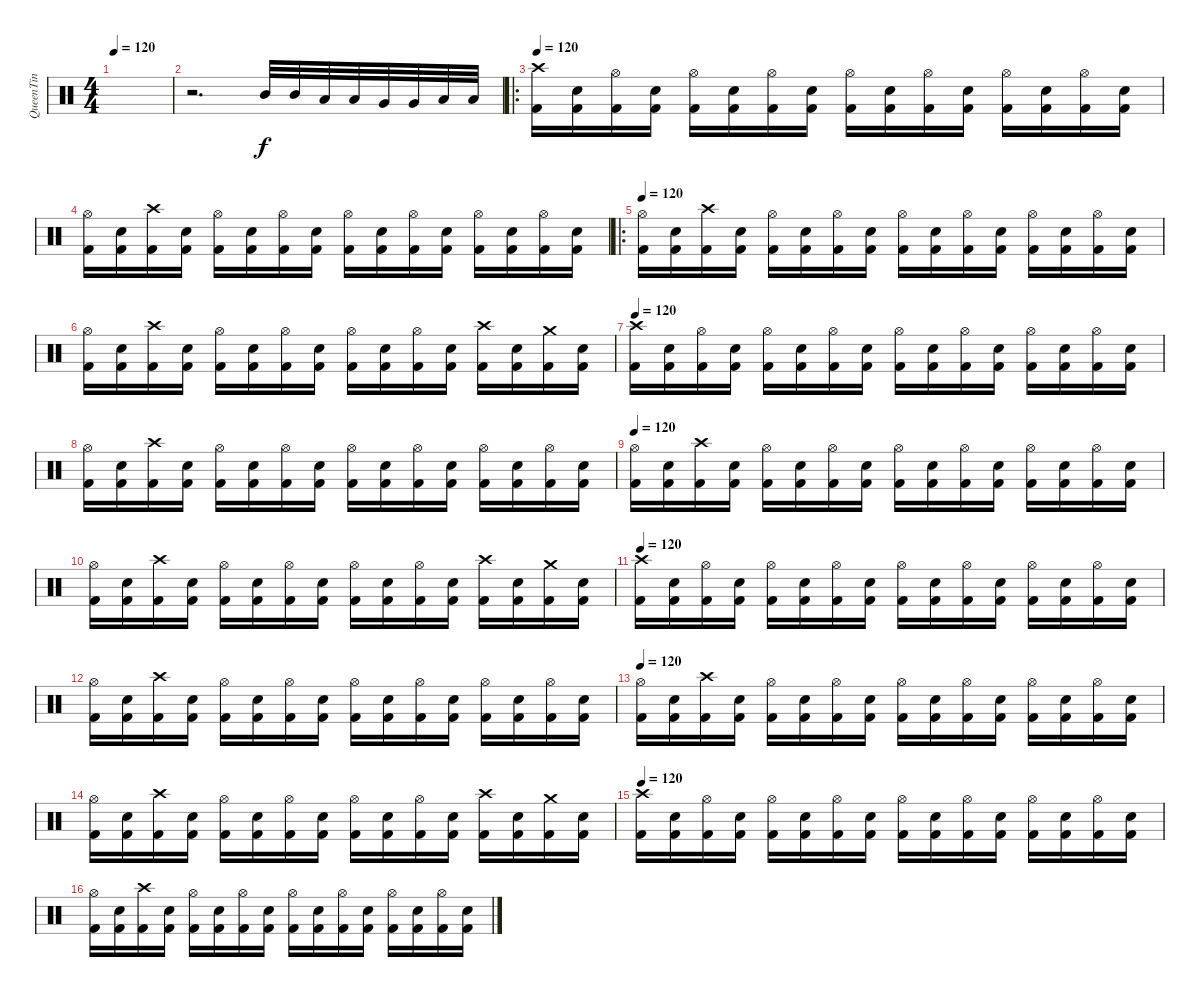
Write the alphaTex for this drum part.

\track ("QueenTin" "QueenTin") {instrument percussion}
\staff {score}
\articulation defaults
\ts (4 4)
\tempo 120
\clef neutral
\ks c
|
r.2{d} "Mid Tom (hit)".32 "Mid Tom (hit)".32 "Low Tom (hit)".32 "Low Tom (hit)".32 "Very Low Tom (hit)".32 "Very Low Tom (hit)".32 "Low Floor Tom (hit)".32 "Low Floor Tom (hit)".32 |
\ro
\section ("" "")
\tempo 120
("Crash high (hit)" "Kick (hit) 2").16 ("Snare (hit) 2" "Kick (hit) 2").16 ("Hi-Hat (open)" "Kick (hit) 2").16 ("Snare (hit) 2" "Kick (hit) 2").16 ("Hi-Hat (open)" "Kick (hit) 2").16 ("Snare (hit) 2" "Kick (hit) 2").16 ("Hi-Hat (open)" "Kick (hit) 2").16 ("Snare (hit) 2" "Kick (hit) 2").16 ("Hi-Hat (open)" "Kick (hit) 2").16 ("Snare (hit) 2" "Kick (hit) 2").16 ("Hi-Hat (open)" "Kick (hit) 2").16 ("Snare (hit) 2" "Kick (hit) 2").16 ("Hi-Hat (open)" "Kick (hit) 2").16 ("Snare (hit) 2" "Kick (hit) 2").16 ("Hi-Hat (open)" "Kick (hit) 2").16 ("Snare (hit) 2" "Kick (hit) 2").16 |
("Hi-Hat (open)" "Kick (hit) 2").16 ("Snare (hit) 2" "Kick (hit) 2").16 ("Crash high (hit)" "Kick (hit) 2").16 ("Snare (hit) 2" "Kick (hit) 2").16 ("Hi-Hat (open)" "Kick (hit) 2").16 ("Snare (hit) 2" "Kick (hit) 2").16 ("Hi-Hat (open)" "Kick (hit) 2").16 ("Snare (hit) 2" "Kick (hit) 2").16 ("Hi-Hat (open)" "Kick (hit) 2").16 ("Snare (hit) 2" "Kick (hit) 2").16 ("Hi-Hat (open)" "Kick (hit) 2").16 ("Snare (hit) 2" "Kick (hit) 2").16 ("Hi-Hat (open)" "Kick (hit) 2").16 ("Snare (hit) 2" "Kick (hit) 2").16 ("Hi-Hat (open)" "Kick (hit) 2").16 ("Snare (hit) 2" "Kick (hit) 2").16 |
\ro
\tempo 120
("Hi-Hat (open)" "Kick (hit) 2").16 ("Snare (hit) 2" "Kick (hit) 2").16 ("Crash high (hit)" "Kick (hit) 2").16 ("Snare (hit) 2" "Kick (hit) 2").16 ("Hi-Hat (open)" "Kick (hit) 2").16 ("Snare (hit) 2" "Kick (hit) 2").16 ("Hi-Hat (open)" "Kick (hit) 2").16 ("Snare (hit) 2" "Kick (hit) 2").16 ("Hi-Hat (open)" "Kick (hit) 2").16 ("Snare (hit) 2" "Kick (hit) 2").16 ("Hi-Hat (open)" "Kick (hit) 2").16 ("Snare (hit) 2" "Kick (hit) 2").16 ("Hi-Hat (open)" "Kick (hit) 2").16 ("Snare (hit) 2" "Kick (hit) 2").16 ("Hi-Hat (open)" "Kick (hit) 2").16 ("Snare (hit) 2" "Kick (hit) 2").16 |
("Hi-Hat (open)" "Kick (hit) 2").16 ("Snare (hit) 2" "Kick (hit) 2").16 ("Crash high (hit)" "Kick (hit) 2").16 ("Snare (hit) 2" "Kick (hit) 2").16 ("Hi-Hat (open)" "Kick (hit) 2").16 ("Snare (hit) 2" "Kick (hit) 2").16 ("Hi-Hat (open)" "Kick (hit) 2").16 ("Snare (hit) 2" "Kick (hit) 2").16 ("Hi-Hat (open)" "Kick (hit) 2").16 ("Snare (hit) 2" "Kick (hit) 2").16 ("Hi-Hat (open)" "Kick (hit) 2").16 ("Snare (hit) 2" "Kick (hit) 2").16 ("Crash high (hit)" "Kick (hit) 2").16 ("Snare (hit) 2" "Kick (hit) 2").16 ("Crash medium (hit)" "Kick (hit) 2").16 ("Snare (hit) 2" "Kick (hit) 2").16 |
\tempo 120
("Crash high (hit)" "Kick (hit) 2").16 ("Snare (hit) 2" "Kick (hit) 2").16 ("Hi-Hat (open)" "Kick (hit) 2").16 ("Snare (hit) 2" "Kick (hit) 2").16 ("Hi-Hat (open)" "Kick (hit) 2").16 ("Snare (hit) 2" "Kick (hit) 2").16 ("Hi-Hat (open)" "Kick (hit) 2").16 ("Snare (hit) 2" "Kick (hit) 2").16 ("Hi-Hat (open)" "Kick (hit) 2").16 ("Snare (hit) 2" "Kick (hit) 2").16 ("Hi-Hat (open)" "Kick (hit) 2").16 ("Snare (hit) 2" "Kick (hit) 2").16 ("Hi-Hat (open)" "Kick (hit) 2").16 ("Snare (hit) 2" "Kick (hit) 2").16 ("Hi-Hat (open)" "Kick (hit) 2").16 ("Snare (hit) 2" "Kick (hit) 2").16 |
("Hi-Hat (open)" "Kick (hit) 2").16 ("Snare (hit) 2" "Kick (hit) 2").16 ("Crash high (hit)" "Kick (hit) 2").16 ("Snare (hit) 2" "Kick (hit) 2").16 ("Hi-Hat (open)" "Kick (hit) 2").16 ("Snare (hit) 2" "Kick (hit) 2").16 ("Hi-Hat (open)" "Kick (hit) 2").16 ("Snare (hit) 2" "Kick (hit) 2").16 ("Hi-Hat (open)" "Kick (hit) 2").16 ("Snare (hit) 2" "Kick (hit) 2").16 ("Hi-Hat (open)" "Kick (hit) 2").16 ("Snare (hit) 2" "Kick (hit) 2").16 ("Hi-Hat (open)" "Kick (hit) 2").16 ("Snare (hit) 2" "Kick (hit) 2").16 ("Hi-Hat (open)" "Kick (hit) 2").16 ("Snare (hit) 2" "Kick (hit) 2").16 |
\tempo 120
("Hi-Hat (open)" "Kick (hit) 2").16 ("Snare (hit) 2" "Kick (hit) 2").16 ("Crash high (hit)" "Kick (hit) 2").16 ("Snare (hit) 2" "Kick (hit) 2").16 ("Hi-Hat (open)" "Kick (hit) 2").16 ("Snare (hit) 2" "Kick (hit) 2").16 ("Hi-Hat (open)" "Kick (hit) 2").16 ("Snare (hit) 2" "Kick (hit) 2").16 ("Hi-Hat (open)" "Kick (hit) 2").16 ("Snare (hit) 2" "Kick (hit) 2").16 ("Hi-Hat (open)" "Kick (hit) 2").16 ("Snare (hit) 2" "Kick (hit) 2").16 ("Hi-Hat (open)" "Kick (hit) 2").16 ("Snare (hit) 2" "Kick (hit) 2").16 ("Hi-Hat (open)" "Kick (hit) 2").16 ("Snare (hit) 2" "Kick (hit) 2").16 |
("Hi-Hat (open)" "Kick (hit) 2").16 ("Snare (hit) 2" "Kick (hit) 2").16 ("Crash high (hit)" "Kick (hit) 2").16 ("Snare (hit) 2" "Kick (hit) 2").16 ("Hi-Hat (open)" "Kick (hit) 2").16 ("Snare (hit) 2" "Kick (hit) 2").16 ("Hi-Hat (open)" "Kick (hit) 2").16 ("Snare (hit) 2" "Kick (hit) 2").16 ("Hi-Hat (open)" "Kick (hit) 2").16 ("Snare (hit) 2" "Kick (hit) 2").16 ("Hi-Hat (open)" "Kick (hit) 2").16 ("Snare (hit) 2" "Kick (hit) 2").16 ("Crash high (hit)" "Kick (hit) 2").16 ("Snare (hit) 2" "Kick (hit) 2").16 ("Crash medium (hit)" "Kick (hit) 2").16 ("Snare (hit) 2" "Kick (hit) 2").16 |
\tempo 120
("Crash high (hit)" "Kick (hit) 2").16 ("Snare (hit) 2" "Kick (hit) 2").16 ("Hi-Hat (open)" "Kick (hit) 2").16 ("Snare (hit) 2" "Kick (hit) 2").16 ("Hi-Hat (open)" "Kick (hit) 2").16 ("Snare (hit) 2" "Kick (hit) 2").16 ("Hi-Hat (open)" "Kick (hit) 2").16 ("Snare (hit) 2" "Kick (hit) 2").16 ("Hi-Hat (open)" "Kick (hit) 2").16 ("Snare (hit) 2" "Kick (hit) 2").16 ("Hi-Hat (open)" "Kick (hit) 2").16 ("Snare (hit) 2" "Kick (hit) 2").16 ("Hi-Hat (open)" "Kick (hit) 2").16 ("Snare (hit) 2" "Kick (hit) 2").16 ("Hi-Hat (open)" "Kick (hit) 2").16 ("Snare (hit) 2" "Kick (hit) 2").16 |
("Hi-Hat (open)" "Kick (hit) 2").16 ("Snare (hit) 2" "Kick (hit) 2").16 ("Crash high (hit)" "Kick (hit) 2").16 ("Snare (hit) 2" "Kick (hit) 2").16 ("Hi-Hat (open)" "Kick (hit) 2").16 ("Snare (hit) 2" "Kick (hit) 2").16 ("Hi-Hat (open)" "Kick (hit) 2").16 ("Snare (hit) 2" "Kick (hit) 2").16 ("Hi-Hat (open)" "Kick (hit) 2").16 ("Snare (hit) 2" "Kick (hit) 2").16 ("Hi-Hat (open)" "Kick (hit) 2").16 ("Snare (hit) 2" "Kick (hit) 2").16 ("Hi-Hat (open)" "Kick (hit) 2").16 ("Snare (hit) 2" "Kick (hit) 2").16 ("Hi-Hat (open)" "Kick (hit) 2").16 ("Snare (hit) 2" "Kick (hit) 2").16 |
\tempo 120
("Hi-Hat (open)" "Kick (hit) 2").16 ("Snare (hit) 2" "Kick (hit) 2").16 ("Crash high (hit)" "Kick (hit) 2").16 ("Snare (hit) 2" "Kick (hit) 2").16 ("Hi-Hat (open)" "Kick (hit) 2").16 ("Snare (hit) 2" "Kick (hit) 2").16 ("Hi-Hat (open)" "Kick (hit) 2").16 ("Snare (hit) 2" "Kick (hit) 2").16 ("Hi-Hat (open)" "Kick (hit) 2").16 ("Snare (hit) 2" "Kick (hit) 2").16 ("Hi-Hat (open)" "Kick (hit) 2").16 ("Snare (hit) 2" "Kick (hit) 2").16 ("Hi-Hat (open)" "Kick (hit) 2").16 ("Snare (hit) 2" "Kick (hit) 2").16 ("Hi-Hat (open)" "Kick (hit) 2").16 ("Snare (hit) 2" "Kick (hit) 2").16 |
("Hi-Hat (open)" "Kick (hit) 2").16 ("Snare (hit) 2" "Kick (hit) 2").16 ("Crash high (hit)" "Kick (hit) 2").16 ("Snare (hit) 2" "Kick (hit) 2").16 ("Hi-Hat (open)" "Kick (hit) 2").16 ("Snare (hit) 2" "Kick (hit) 2").16 ("Hi-Hat (open)" "Kick (hit) 2").16 ("Snare (hit) 2" "Kick (hit) 2").16 ("Hi-Hat (open)" "Kick (hit) 2").16 ("Snare (hit) 2" "Kick (hit) 2").16 ("Hi-Hat (open)" "Kick (hit) 2").16 ("Snare (hit) 2" "Kick (hit) 2").16 ("Crash high (hit)" "Kick (hit) 2").16 ("Snare (hit) 2" "Kick (hit) 2").16 ("Crash medium (hit)" "Kick (hit) 2").16 ("Snare (hit) 2" "Kick (hit) 2").16 |
\tempo 120
("Crash high (hit)" "Kick (hit) 2").16 ("Snare (hit) 2" "Kick (hit) 2").16 ("Hi-Hat (open)" "Kick (hit) 2").16 ("Snare (hit) 2" "Kick (hit) 2").16 ("Hi-Hat (open)" "Kick (hit) 2").16 ("Snare (hit) 2" "Kick (hit) 2").16 ("Hi-Hat (open)" "Kick (hit) 2").16 ("Snare (hit) 2" "Kick (hit) 2").16 ("Hi-Hat (open)" "Kick (hit) 2").16 ("Snare (hit) 2" "Kick (hit) 2").16 ("Hi-Hat (open)" "Kick (hit) 2").16 ("Snare (hit) 2" "Kick (hit) 2").16 ("Hi-Hat (open)" "Kick (hit) 2").16 ("Snare (hit) 2" "Kick (hit) 2").16 ("Hi-Hat (open)" "Kick (hit) 2").16 ("Snare (hit) 2" "Kick (hit) 2").16 |
("Hi-Hat (open)" "Kick (hit) 2").16 ("Snare (hit) 2" "Kick (hit) 2").16 ("Crash high (hit)" "Kick (hit) 2").16 ("Snare (hit) 2" "Kick (hit) 2").16 ("Hi-Hat (open)" "Kick (hit) 2").16 ("Snare (hit) 2" "Kick (hit) 2").16 ("Hi-Hat (open)" "Kick (hit) 2").16 ("Snare (hit) 2" "Kick (hit) 2").16 ("Hi-Hat (open)" "Kick (hit) 2").16 ("Snare (hit) 2" "Kick (hit) 2").16 ("Hi-Hat (open)" "Kick (hit) 2").16 ("Snare (hit) 2" "Kick (hit) 2").16 ("Hi-Hat (open)" "Kick (hit) 2").16 ("Snare (hit) 2" "Kick (hit) 2").16 ("Hi-Hat (open)" "Kick (hit) 2").16 ("Snare (hit) 2" "Kick (hit) 2").16
